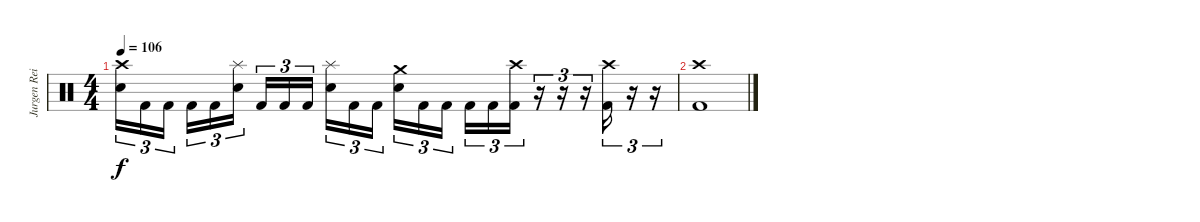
\track ("Jurgen Reil" "Jurgen Rei") {instrument percussion}
\staff {score}
\articulation defaults
\ts (4 4)
\tempo 106
\clef neutral
\ks c
("Crash high (hit)" "Snare (hit) 2").16{tu (3 2) dy f} "Kick (hit) 2".16{tu (3 2)} "Kick (hit) 2".16{tu (3 2)} "Kick (hit) 2".16{tu (3 2)} "Kick (hit) 2".16{tu (3 2)} ("Splash (hit)" "Snare (hit) 2").16{tu (3 2)} "Kick (hit) 2".16{tu (3 2)} "Kick (hit) 2".16{tu (3 2)} "Kick (hit) 2".16{tu (3 2)} ("Splash (hit)" "Snare (hit) 2").16{tu (3 2)} "Kick (hit) 2".16{tu (3 2)} "Kick (hit) 2".16{tu (3 2)} ("Crash medium (hit)" "Snare (hit) 2").16{tu (3 2)} "Kick (hit) 2".16{tu (3 2)} "Kick (hit) 2".16{tu (3 2)} "Kick (hit) 2".16{tu (3 2)} "Kick (hit) 2".16{tu (3 2)} ("Crash high (hit)" "Kick (hit) 2").16{tu (3 2)} r.16{tu (3 2)} r.16{tu (3 2)} r.16{tu (3 2)} ("Crash high (hit)" "Kick (hit) 2").16{tu (3 2)} r.16{tu (3 2)} r.16{tu (3 2)} |
("Crash high (hit)" "Kick (hit) 2").1
